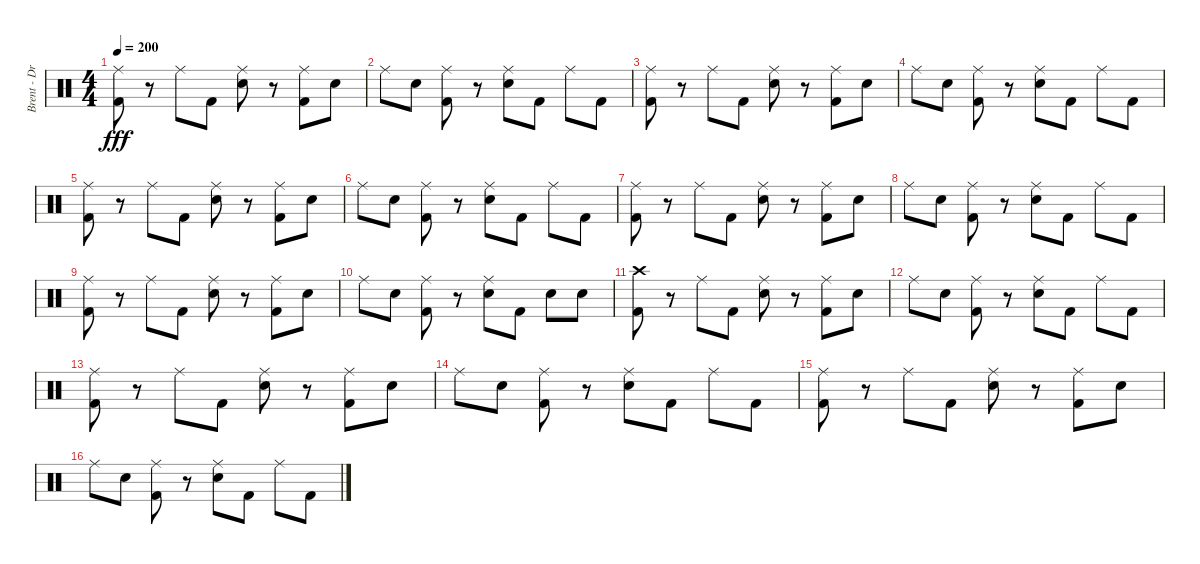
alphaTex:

\track ("Brent - Drums" "Brent - Dr") {instrument percussion}
\staff {score}
\articulation defaults
\ts (4 4)
\tempo 200
\clef neutral
\ks c
("Ride (middle)" "Kick (hit) 2").8{dy fff} r.8 "Ride (middle)".8 "Kick (hit) 2".8 ("Ride (middle)" "Snare (hit) 2").8 r.8 ("Ride (middle)" "Kick (hit) 2").8 "Snare (hit) 2".8 |
"Ride (middle)".8 "Snare (hit) 2".8 ("Ride (middle)" "Kick (hit) 2").8 r.8 ("Ride (middle)" "Snare (hit) 2").8 "Kick (hit) 2".8 "Ride (middle)".8 "Kick (hit) 2".8 |
("Ride (middle)" "Kick (hit) 2").8 r.8 "Ride (middle)".8 "Kick (hit) 2".8 ("Ride (middle)" "Snare (hit) 2").8 r.8 ("Ride (middle)" "Kick (hit) 2").8 "Snare (hit) 2".8 |
"Ride (middle)".8 "Snare (hit) 2".8 ("Ride (middle)" "Kick (hit) 2").8 r.8 ("Ride (middle)" "Snare (hit) 2").8 "Kick (hit) 2".8 "Ride (middle)".8 "Kick (hit) 2".8 |
("Ride (middle)" "Kick (hit) 2").8 r.8 "Ride (middle)".8 "Kick (hit) 2".8 ("Ride (middle)" "Snare (hit) 2").8 r.8 ("Ride (middle)" "Kick (hit) 2").8 "Snare (hit) 2".8 |
"Ride (middle)".8 "Snare (hit) 2".8 ("Ride (middle)" "Kick (hit) 2").8 r.8 ("Ride (middle)" "Snare (hit) 2").8 "Kick (hit) 2".8 "Ride (middle)".8 "Kick (hit) 2".8 |
("Ride (middle)" "Kick (hit) 2").8 r.8 "Ride (middle)".8 "Kick (hit) 2".8 ("Ride (middle)" "Snare (hit) 2").8 r.8 ("Ride (middle)" "Kick (hit) 2").8 "Snare (hit) 2".8 |
"Ride (middle)".8 "Snare (hit) 2".8 ("Ride (middle)" "Kick (hit) 2").8 r.8 ("Ride (middle)" "Snare (hit) 2").8 "Kick (hit) 2".8 "Ride (middle)".8 "Kick (hit) 2".8 |
("Ride (middle)" "Kick (hit) 2").8 r.8 "Ride (middle)".8 "Kick (hit) 2".8 ("Ride (middle)" "Snare (hit) 2").8 r.8 ("Ride (middle)" "Kick (hit) 2").8 "Snare (hit) 2".8 |
"Ride (middle)".8 "Snare (hit) 2".8 ("Ride (middle)" "Kick (hit) 2").8 r.8 ("Ride (middle)" "Snare (hit) 2").8 "Kick (hit) 2".8 "Snare (hit) 2".8 "Snare (hit) 2".8 |
("Crash high (hit)" "Kick (hit) 2").8 r.8 "Ride (middle)".8 "Kick (hit) 2".8 ("Ride (middle)" "Snare (hit) 2").8 r.8 ("Ride (middle)" "Kick (hit) 2").8 "Snare (hit) 2".8 |
"Ride (middle)".8 "Snare (hit) 2".8 ("Ride (middle)" "Kick (hit) 2").8 r.8 ("Ride (middle)" "Snare (hit) 2").8 "Kick (hit) 2".8 "Ride (middle)".8 "Kick (hit) 2".8 |
("Ride (middle)" "Kick (hit) 2").8 r.8 "Ride (middle)".8 "Kick (hit) 2".8 ("Ride (middle)" "Snare (hit) 2").8 r.8 ("Ride (middle)" "Kick (hit) 2").8 "Snare (hit) 2".8 |
"Ride (middle)".8 "Snare (hit) 2".8 ("Ride (middle)" "Kick (hit) 2").8 r.8 ("Ride (middle)" "Snare (hit) 2").8 "Kick (hit) 2".8 "Ride (middle)".8 "Kick (hit) 2".8 |
("Ride (middle)" "Kick (hit) 2").8 r.8 "Ride (middle)".8 "Kick (hit) 2".8 ("Ride (middle)" "Snare (hit) 2").8 r.8 ("Ride (middle)" "Kick (hit) 2").8 "Snare (hit) 2".8 |
"Ride (middle)".8 "Snare (hit) 2".8 ("Ride (middle)" "Kick (hit) 2").8 r.8 ("Ride (middle)" "Snare (hit) 2").8 "Kick (hit) 2".8 "Ride (middle)".8 "Kick (hit) 2".8
